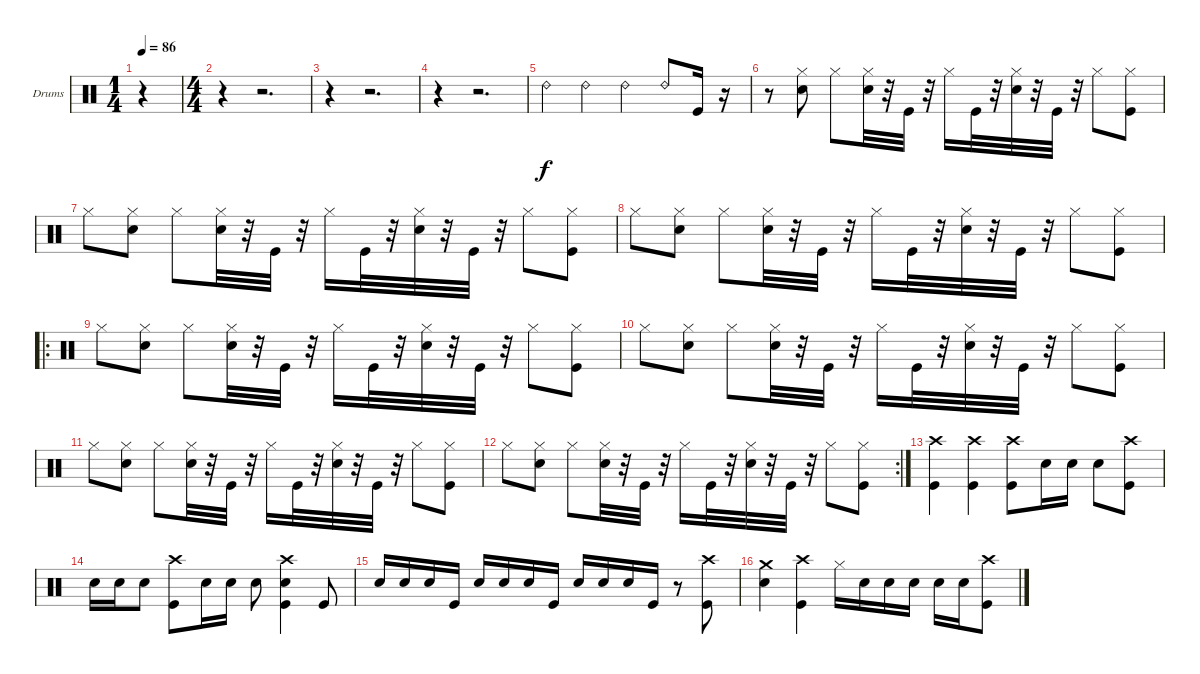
\bracketExtendMode groupsimilarinstruments
\firstSystemTrackNameOrientation horizontal
\otherSystemsTrackNameOrientation horizontal
\track ("Drumkit" "Drums") {instrument percussion}
\staff {score}
\articulation defaults
\ts (1 4)
\tempo 86
\clef neutral
\ks c
r.4{dy f} |
\ts (4 4)
r.4 r.2{d} |
r.4 r.2{d} |
r.4 r.2{d} |
"Ride (bell) 2".4 "Ride (bell) 2".4 "Ride (bell) 2".4 "Ride (bell) 2".8 "Kick (hit)".16 r.16 |
r.8 ("Hi-Hat (closed)" "Snare (hit) 2").8 "Hi-Hat (closed)".8 ("Hi-Hat (closed)" "Snare (hit) 2").32 r.32 "Kick (hit)".32 r.32 "Hi-Hat (closed)".16 "Kick (hit)".32 r.32 ("Hi-Hat (closed)" "Snare (hit) 2").32 r.32 "Kick (hit)".32 r.32 "Hi-Hat (closed)".8 ("Hi-Hat (closed)" "Kick (hit)").8 |
"Hi-Hat (closed)".8 ("Hi-Hat (closed)" "Snare (hit) 2").8 "Hi-Hat (closed)".8 ("Hi-Hat (closed)" "Snare (hit) 2").32 r.32 "Kick (hit)".32 r.32 "Hi-Hat (closed)".16 "Kick (hit)".32 r.32 ("Hi-Hat (closed)" "Snare (hit) 2").32 r.32 "Kick (hit)".32 r.32 "Hi-Hat (closed)".8 ("Hi-Hat (closed)" "Kick (hit)").8 |
"Hi-Hat (closed)".8 ("Hi-Hat (closed)" "Snare (hit) 2").8 "Hi-Hat (closed)".8 ("Hi-Hat (closed)" "Snare (hit) 2").32 r.32 "Kick (hit)".32 r.32 "Hi-Hat (closed)".16 "Kick (hit)".32 r.32 ("Hi-Hat (closed)" "Snare (hit) 2").32 r.32 "Kick (hit)".32 r.32 "Hi-Hat (closed)".8 ("Hi-Hat (closed)" "Kick (hit)").8 |
\ro "Hi-Hat (closed)".8
("Hi-Hat (closed)" "Snare (hit) 2").8 "Hi-Hat (closed)".8 ("Hi-Hat (closed)" "Snare (hit) 2").32 r.32 "Kick (hit)".32 r.32 "Hi-Hat (closed)".16 "Kick (hit)".32 r.32 ("Hi-Hat (closed)" "Snare (hit) 2").32 r.32 "Kick (hit)".32 r.32 "Hi-Hat (closed)".8 ("Hi-Hat (closed)" "Kick (hit)").8 |
"Hi-Hat (closed)".8 ("Hi-Hat (closed)" "Snare (hit) 2").8 "Hi-Hat (closed)".8 ("Hi-Hat (closed)" "Snare (hit) 2").32 r.32 "Kick (hit)".32 r.32 "Hi-Hat (closed)".16 "Kick (hit)".32 r.32 ("Hi-Hat (closed)" "Snare (hit) 2").32 r.32 "Kick (hit)".32 r.32 "Hi-Hat (closed)".8 ("Hi-Hat (closed)" "Kick (hit)").8 |
"Hi-Hat (closed)".8 ("Hi-Hat (closed)" "Snare (hit) 2").8 "Hi-Hat (closed)".8 ("Hi-Hat (closed)" "Snare (hit) 2").32 r.32 "Kick (hit)".32 r.32 "Hi-Hat (closed)".16 "Kick (hit)".32 r.32 ("Hi-Hat (closed)" "Snare (hit) 2").32 r.32 "Kick (hit)".32 r.32 "Hi-Hat (closed)".8 ("Hi-Hat (closed)" "Kick (hit)").8 |
\rc 2 "Hi-Hat (closed)".8
("Hi-Hat (closed)" "Snare (hit) 2").8 "Hi-Hat (closed)".8 ("Hi-Hat (closed)" "Snare (hit) 2").32 r.32 "Kick (hit)".32 r.32 "Hi-Hat (closed)".16 "Kick (hit)".32 r.32 ("Hi-Hat (closed)" "Snare (hit) 2").32 r.32 "Kick (hit)".32 r.32 "Hi-Hat (closed)".8 ("Hi-Hat (closed)" "Kick (hit)").8 |
("Crash high (hit)" "Kick (hit)").4 ("Crash high (hit)" "Kick (hit)").4 ("Crash high (hit)" "Kick (hit)").8 "Snare (hit) 2".16 "Snare (hit) 2".16 "Snare (hit) 2".8 ("Crash high (hit)" "Kick (hit)").8 |
"Snare (hit) 2".16 "Snare (hit) 2".16 "Snare (hit) 2".8 ("Crash high (hit)" "Kick (hit)").8 "Snare (hit) 2".16 "Snare (hit) 2".16 "Snare (hit) 2".8 ("Crash high (hit)" "Snare (hit) 2" "Kick (hit)").4 "Kick (hit)".8 |
"Snare (hit) 2".16 "Snare (hit) 2".16 "Snare (hit) 2".16 "Kick (hit)".16 "Snare (hit) 2".16 "Snare (hit) 2".16 "Snare (hit) 2".16 "Kick (hit)".16 "Snare (hit) 2".16 "Snare (hit) 2".16 "Snare (hit) 2".16 "Kick (hit)".16 r.8 ("Crash high (hit)" "Kick (hit)").8 |
("Crash medium (hit)" "Snare (hit) 2").4 ("Crash high (hit)" "Kick (hit)").4 "Hi-Hat (closed)".16 "Snare (hit) 2".16 "Snare (hit) 2".16 "Snare (hit) 2".16 "Snare (hit) 2".16 "Snare (hit) 2".16 ("Crash high (hit)" "Kick (hit)").8
